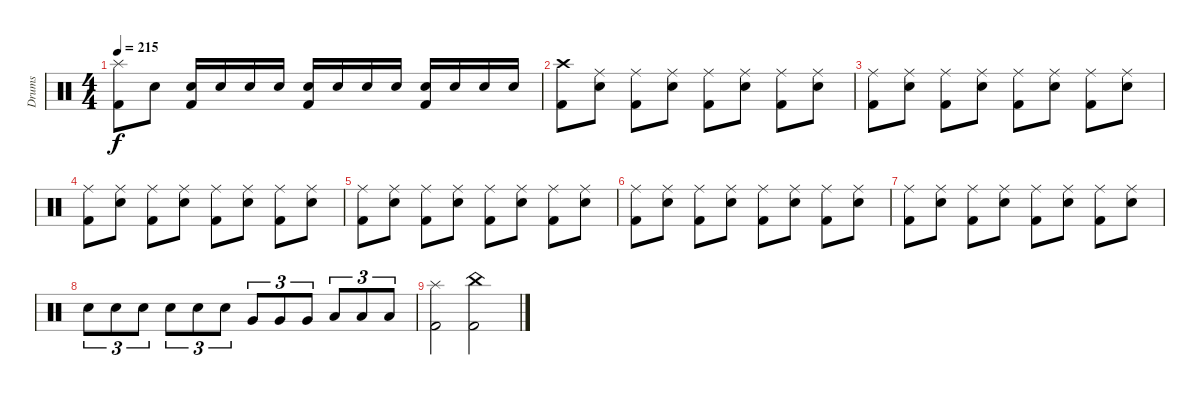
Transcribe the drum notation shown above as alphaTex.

\track ("Drums" "Drums") {instrument percussion}
\staff {score}
\articulation defaults
\ts (4 4)
\tempo 215
\clef neutral
\ks c
("Splash (hit)" "Kick (hit) 2").8{dy f} "Electric Snare (hit)".8 ("Electric Snare (hit)" "Kick (hit) 2").16 "Electric Snare (hit)".16 "Electric Snare (hit)".16 "Electric Snare (hit)".16 ("Electric Snare (hit)" "Kick (hit) 2").16 "Electric Snare (hit)".16 "Electric Snare (hit)".16 "Electric Snare (hit)".16 ("Electric Snare (hit)" "Kick (hit) 2").16 "Electric Snare (hit)".16 "Electric Snare (hit)".16 "Electric Snare (hit)".16 |
("Crash high (hit)" "Kick (hit) 2").8 ("Electric Snare (hit)" "Ride (middle)").8 ("Ride (middle)" "Kick (hit) 2").8 ("Electric Snare (hit)" "Ride (middle)").8 ("Ride (middle)" "Kick (hit) 2").8 ("Electric Snare (hit)" "Ride (middle)").8 ("Ride (middle)" "Kick (hit) 2").8 ("Electric Snare (hit)" "Ride (middle)").8 |
("Ride (middle)" "Kick (hit) 2").8 ("Electric Snare (hit)" "Ride (middle)").8 ("Ride (middle)" "Kick (hit) 2").8 ("Electric Snare (hit)" "Ride (middle)").8 ("Ride (middle)" "Kick (hit) 2").8 ("Electric Snare (hit)" "Ride (middle)").8 ("Ride (middle)" "Kick (hit) 2").8 ("Electric Snare (hit)" "Ride (middle)").8 |
("Ride (middle)" "Kick (hit) 2").8 ("Electric Snare (hit)" "Ride (middle)").8 ("Ride (middle)" "Kick (hit) 2").8 ("Electric Snare (hit)" "Ride (middle)").8 ("Ride (middle)" "Kick (hit) 2").8 ("Electric Snare (hit)" "Ride (middle)").8 ("Ride (middle)" "Kick (hit) 2").8 ("Electric Snare (hit)" "Ride (middle)").8 |
("Ride (middle)" "Kick (hit) 2").8 ("Electric Snare (hit)" "Ride (middle)").8 ("Ride (middle)" "Kick (hit) 2").8 ("Electric Snare (hit)" "Ride (middle)").8 ("Ride (middle)" "Kick (hit) 2").8 ("Electric Snare (hit)" "Ride (middle)").8 ("Ride (middle)" "Kick (hit) 2").8 ("Electric Snare (hit)" "Ride (middle)").8 |
("Ride (middle)" "Kick (hit) 2").8 ("Electric Snare (hit)" "Ride (middle)").8 ("Ride (middle)" "Kick (hit) 2").8 ("Electric Snare (hit)" "Ride (middle)").8 ("Ride (middle)" "Kick (hit) 2").8 ("Electric Snare (hit)" "Ride (middle)").8 ("Ride (middle)" "Kick (hit) 2").8 ("Electric Snare (hit)" "Ride (middle)").8 |
("Ride (middle)" "Kick (hit) 2").8 ("Electric Snare (hit)" "Ride (middle)").8 ("Ride (middle)" "Kick (hit) 2").8 ("Electric Snare (hit)" "Ride (middle)").8 ("Ride (middle)" "Kick (hit) 2").8 ("Electric Snare (hit)" "Ride (middle)").8 ("Ride (middle)" "Kick (hit) 2").8 ("Electric Snare (hit)" "Ride (middle)").8 |
"Electric Snare (hit)".8{tu (3 2)} "Electric Snare (hit)".8{tu (3 2)} "Electric Snare (hit)".8{tu (3 2)} "Electric Snare (hit)".8{tu (3 2)} "Electric Snare (hit)".8{tu (3 2)} "Electric Snare (hit)".8{tu (3 2)} "Very Low Tom (hit)".8{tu (3 2)} "Very Low Tom (hit)".8{tu (3 2)} "Very Low Tom (hit)".8{tu (3 2)} "Low Floor Tom (hit)".8{tu (3 2)} "Low Floor Tom (hit)".8{tu (3 2)} "Low Floor Tom (hit)".8{tu (3 2)} |
("Splash (hit)" "Kick (hit) 2").2 ("China (hit)" "Kick (hit) 2").2
